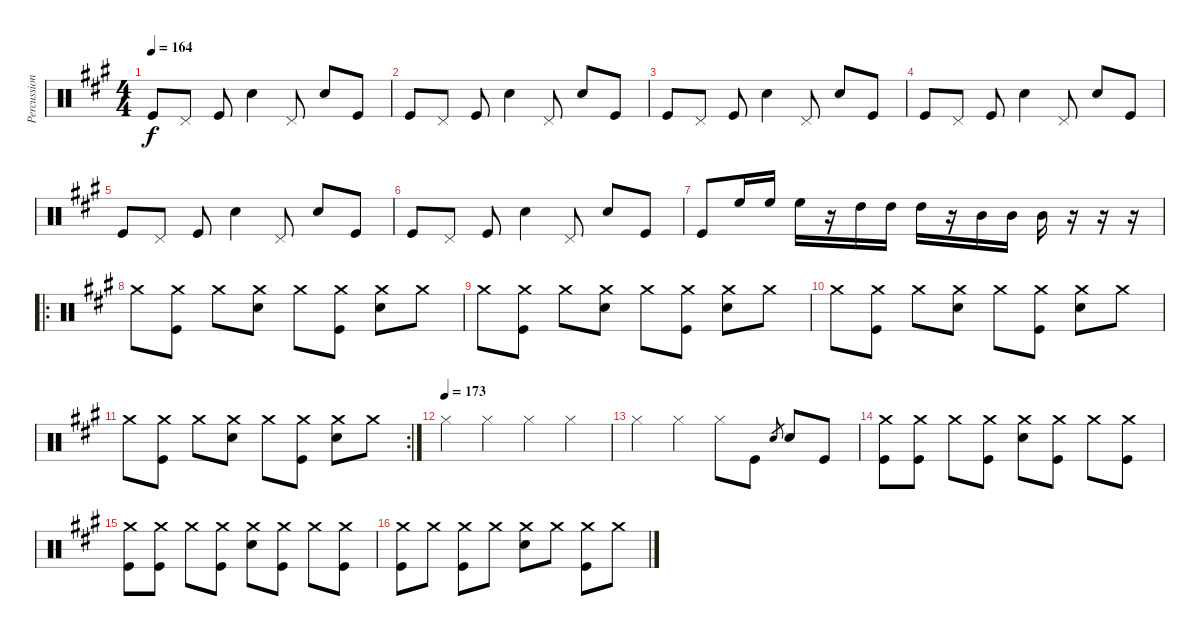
\track ("Percussions" "Percussion") {instrument percussion}
\staff {score}
\articulation defaults
\ts (4 4)
\tempo 164
\clef neutral
\ks a "Kick (hit)".8{dy f} "Pedal Hi-Hat (hit)".8 "Kick (hit)".8 "Electric Snare (hit)".4 "Pedal Hi-Hat (hit)".8 "Electric Snare (hit)".8 "Kick (hit)".8
|
"Kick (hit)".8 "Pedal Hi-Hat (hit)".8 "Kick (hit)".8 "Electric Snare (hit)".4 "Pedal Hi-Hat (hit)".8 "Electric Snare (hit)".8 "Kick (hit)".8 |
"Kick (hit)".8 "Pedal Hi-Hat (hit)".8 "Kick (hit)".8 "Electric Snare (hit)".4 "Pedal Hi-Hat (hit)".8 "Electric Snare (hit)".8 "Kick (hit)".8 |
"Kick (hit)".8 "Pedal Hi-Hat (hit)".8 "Kick (hit)".8 "Electric Snare (hit)".4 "Pedal Hi-Hat (hit)".8 "Electric Snare (hit)".8 "Kick (hit)".8 |
"Kick (hit)".8 "Pedal Hi-Hat (hit)".8 "Kick (hit)".8 "Electric Snare (hit)".4 "Pedal Hi-Hat (hit)".8 "Electric Snare (hit)".8 "Kick (hit)".8 |
"Kick (hit)".8 "Pedal Hi-Hat (hit)".8 "Kick (hit)".8 "Electric Snare (hit)".4 "Pedal Hi-Hat (hit)".8 "Electric Snare (hit)".8 "Kick (hit)".8 |
"Kick (hit)".8 "High Floor Tom (hit)".16 "High Floor Tom (hit)".16 "High Floor Tom (hit)".16 r.16 "High Tom (hit)".16 "High Tom (hit)".16 "High Tom (hit)".16 r.16 "Mid Tom (hit)".16 "Mid Tom (hit)".16 "Mid Tom (hit)".16 r.16 r.16 r.16 |
\ro "Crash medium (hit)".8
("Crash medium (hit)" "Kick (hit)").8 "Crash medium (hit)".8 ("Crash medium (hit)" "Electric Snare (hit)").8 "Crash medium (hit)".8 ("Crash medium (hit)" "Kick (hit)").8 ("Crash medium (hit)" "Electric Snare (hit)").8 "Crash medium (hit)".8 |
"Crash medium (hit)".8 ("Crash medium (hit)" "Kick (hit)").8 "Crash medium (hit)".8 ("Crash medium (hit)" "Electric Snare (hit)").8 "Crash medium (hit)".8 ("Crash medium (hit)" "Kick (hit)").8 ("Crash medium (hit)" "Electric Snare (hit)").8 "Crash medium (hit)".8 |
"Crash medium (hit)".8 ("Crash medium (hit)" "Kick (hit)").8 "Crash medium (hit)".8 ("Crash medium (hit)" "Electric Snare (hit)").8 "Crash medium (hit)".8 ("Crash medium (hit)" "Kick (hit)").8 ("Crash medium (hit)" "Electric Snare (hit)").8 "Crash medium (hit)".8 |
\rc 2 "Crash medium (hit)".8
("Crash medium (hit)" "Kick (hit)").8 "Crash medium (hit)".8 ("Crash medium (hit)" "Electric Snare (hit)").8 "Crash medium (hit)".8 ("Crash medium (hit)" "Kick (hit)").8 ("Crash medium (hit)" "Electric Snare (hit)").8 "Crash medium (hit)".8 |
\tempo (173)
"Hi-Hat (closed)".4 "Hi-Hat (closed)".4 "Hi-Hat (closed)".4 "Hi-Hat (closed)".4 |
"Hi-Hat (closed)".4 "Hi-Hat (closed)".4 "Hi-Hat (closed)".8 "Kick (hit)".8 "Electric Snare (hit)".8{gr} "Electric Snare (hit)".8 "Kick (hit)".8 |
("Crash medium (hit)" "Kick (hit)").8 ("Crash medium (hit)" "Kick (hit)").8 "Crash medium (hit)".8 ("Crash medium (hit)" "Kick (hit)").8 ("Crash medium (hit)" "Electric Snare (hit)").8 ("Crash medium (hit)" "Kick (hit)").8 "Crash medium (hit)".8 ("Crash medium (hit)" "Kick (hit)").8 |
("Crash medium (hit)" "Kick (hit)").8 ("Crash medium (hit)" "Kick (hit)").8 "Crash medium (hit)".8 ("Crash medium (hit)" "Kick (hit)").8 ("Crash medium (hit)" "Electric Snare (hit)").8 ("Crash medium (hit)" "Kick (hit)").8 "Crash medium (hit)".8 ("Crash medium (hit)" "Kick (hit)").8 |
("Crash medium (hit)" "Kick (hit)").8 "Crash medium (hit)".8 ("Crash medium (hit)" "Kick (hit)").8 "Crash medium (hit)".8 ("Crash medium (hit)" "Electric Snare (hit)").8 "Crash medium (hit)".8 ("Crash medium (hit)" "Kick (hit)").8 "Crash medium (hit)".8
